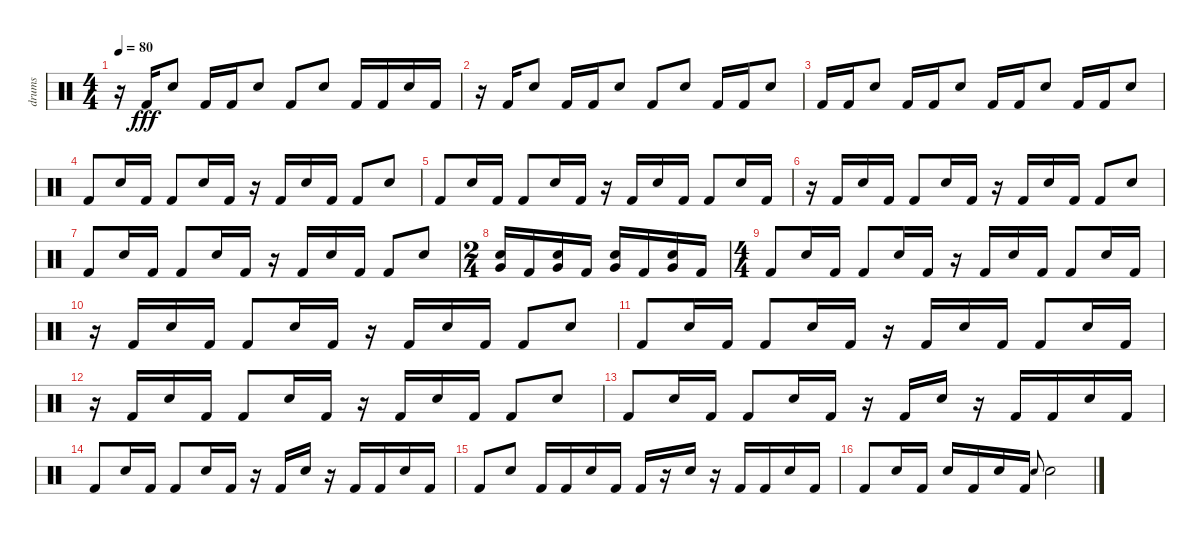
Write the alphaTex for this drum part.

\track ("drums" "drums") {instrument percussion}
\staff {score}
\articulation defaults
\ts (4 4)
\tempo 80
\clef neutral
\ks c
r.16{dy fff} "Kick (hit) 2".16 "Electric Snare (hit)".8 "Kick (hit) 2".16 "Kick (hit) 2".16 "Electric Snare (hit)".8 "Kick (hit) 2".8 "Electric Snare (hit)".8 "Kick (hit) 2".16 "Kick (hit) 2".16 "Electric Snare (hit)".16 "Kick (hit) 2".16 |
r.16 "Kick (hit) 2".16 "Electric Snare (hit)".8 "Kick (hit) 2".16 "Kick (hit) 2".16 "Electric Snare (hit)".8 "Kick (hit) 2".8 "Electric Snare (hit)".8 "Kick (hit) 2".16 "Kick (hit) 2".16 "Electric Snare (hit)".8 |
"Kick (hit) 2".16 "Kick (hit) 2".16 "Electric Snare (hit)".8 "Kick (hit) 2".16 "Kick (hit) 2".16 "Electric Snare (hit)".8 "Kick (hit) 2".16 "Kick (hit) 2".16 "Electric Snare (hit)".8 "Kick (hit) 2".16 "Kick (hit) 2".16 "Electric Snare (hit)".8 |
"Kick (hit) 2".8 "Electric Snare (hit)".16 "Kick (hit) 2".16 "Kick (hit) 2".8 "Electric Snare (hit)".16 "Kick (hit) 2".16 r.16 "Kick (hit) 2".16 "Electric Snare (hit)".16 "Kick (hit) 2".16 "Kick (hit) 2".8 "Electric Snare (hit)".8 |
"Kick (hit) 2".8 "Electric Snare (hit)".16 "Kick (hit) 2".16 "Kick (hit) 2".8 "Electric Snare (hit)".16 "Kick (hit) 2".16 r.16 "Kick (hit) 2".16 "Electric Snare (hit)".16 "Kick (hit) 2".16 "Kick (hit) 2".8 "Electric Snare (hit)".16 "Kick (hit) 2".16 |
r.16 "Kick (hit) 2".16 "Electric Snare (hit)".16 "Kick (hit) 2".16 "Kick (hit) 2".8 "Electric Snare (hit)".16 "Kick (hit) 2".16 r.16 "Kick (hit) 2".16 "Electric Snare (hit)".16 "Kick (hit) 2".16 "Kick (hit) 2".8 "Electric Snare (hit)".8 |
"Kick (hit) 2".8 "Electric Snare (hit)".16 "Kick (hit) 2".16 "Kick (hit) 2".8 "Electric Snare (hit)".16 "Kick (hit) 2".16 r.16 "Kick (hit) 2".16 "Electric Snare (hit)".16 "Kick (hit) 2".16 "Kick (hit) 2".8 "Electric Snare (hit)".8 |
\ts (2 4)
("Electric Snare (hit)" "Very Low Tom (hit)").16 "Kick (hit) 2".16 ("Electric Snare (hit)" "Very Low Tom (hit)").16 "Kick (hit) 2".16 ("Electric Snare (hit)" "Very Low Tom (hit)").16 "Kick (hit) 2".16 ("Electric Snare (hit)" "Very Low Tom (hit)").16 "Kick (hit) 2".16 |
\ts (4 4)
"Kick (hit) 2".8 "Electric Snare (hit)".16 "Kick (hit) 2".16 "Kick (hit) 2".8 "Electric Snare (hit)".16 "Kick (hit) 2".16 r.16 "Kick (hit) 2".16 "Electric Snare (hit)".16 "Kick (hit) 2".16 "Kick (hit) 2".8 "Electric Snare (hit)".16 "Kick (hit) 2".16 |
r.16 "Kick (hit) 2".16 "Electric Snare (hit)".16 "Kick (hit) 2".16 "Kick (hit) 2".8 "Electric Snare (hit)".16 "Kick (hit) 2".16 r.16 "Kick (hit) 2".16 "Electric Snare (hit)".16 "Kick (hit) 2".16 "Kick (hit) 2".8 "Electric Snare (hit)".8 |
"Kick (hit) 2".8 "Electric Snare (hit)".16 "Kick (hit) 2".16 "Kick (hit) 2".8 "Electric Snare (hit)".16 "Kick (hit) 2".16 r.16 "Kick (hit) 2".16 "Electric Snare (hit)".16 "Kick (hit) 2".16 "Kick (hit) 2".8 "Electric Snare (hit)".16 "Kick (hit) 2".16 |
r.16 "Kick (hit) 2".16 "Electric Snare (hit)".16 "Kick (hit) 2".16 "Kick (hit) 2".8 "Electric Snare (hit)".16 "Kick (hit) 2".16 r.16 "Kick (hit) 2".16 "Electric Snare (hit)".16 "Kick (hit) 2".16 "Kick (hit) 2".8 "Electric Snare (hit)".8 |
"Kick (hit) 2".8 "Electric Snare (hit)".16 "Kick (hit) 2".16 "Kick (hit) 2".8 "Electric Snare (hit)".16 "Kick (hit) 2".16 r.16 "Kick (hit) 2".16 "Electric Snare (hit)".16 r.16 "Kick (hit) 2".16 "Kick (hit) 2".16 "Electric Snare (hit)".16 "Kick (hit) 2".16 |
"Kick (hit) 2".8 "Electric Snare (hit)".16 "Kick (hit) 2".16 "Kick (hit) 2".8 "Electric Snare (hit)".16 "Kick (hit) 2".16 r.16 "Kick (hit) 2".16 "Electric Snare (hit)".16 r.16 "Kick (hit) 2".16 "Kick (hit) 2".16 "Electric Snare (hit)".16 "Kick (hit) 2".16 |
"Kick (hit) 2".8 "Electric Snare (hit)".8 "Kick (hit) 2".16 "Kick (hit) 2".16 "Electric Snare (hit)".16 "Kick (hit) 2".16 "Kick (hit) 2".16 r.16 "Electric Snare (hit)".16 r.16 "Kick (hit) 2".16 "Kick (hit) 2".16 "Electric Snare (hit)".16 "Kick (hit) 2".16 |
"Kick (hit) 2".8 "Electric Snare (hit)".16 "Kick (hit) 2".16 "Electric Snare (hit)".16 "Kick (hit) 2".16 "Electric Snare (hit)".16 "Kick (hit) 2".16 "Electric Snare (hit)".8{gr onbeat} "Electric Snare (hit)".2
